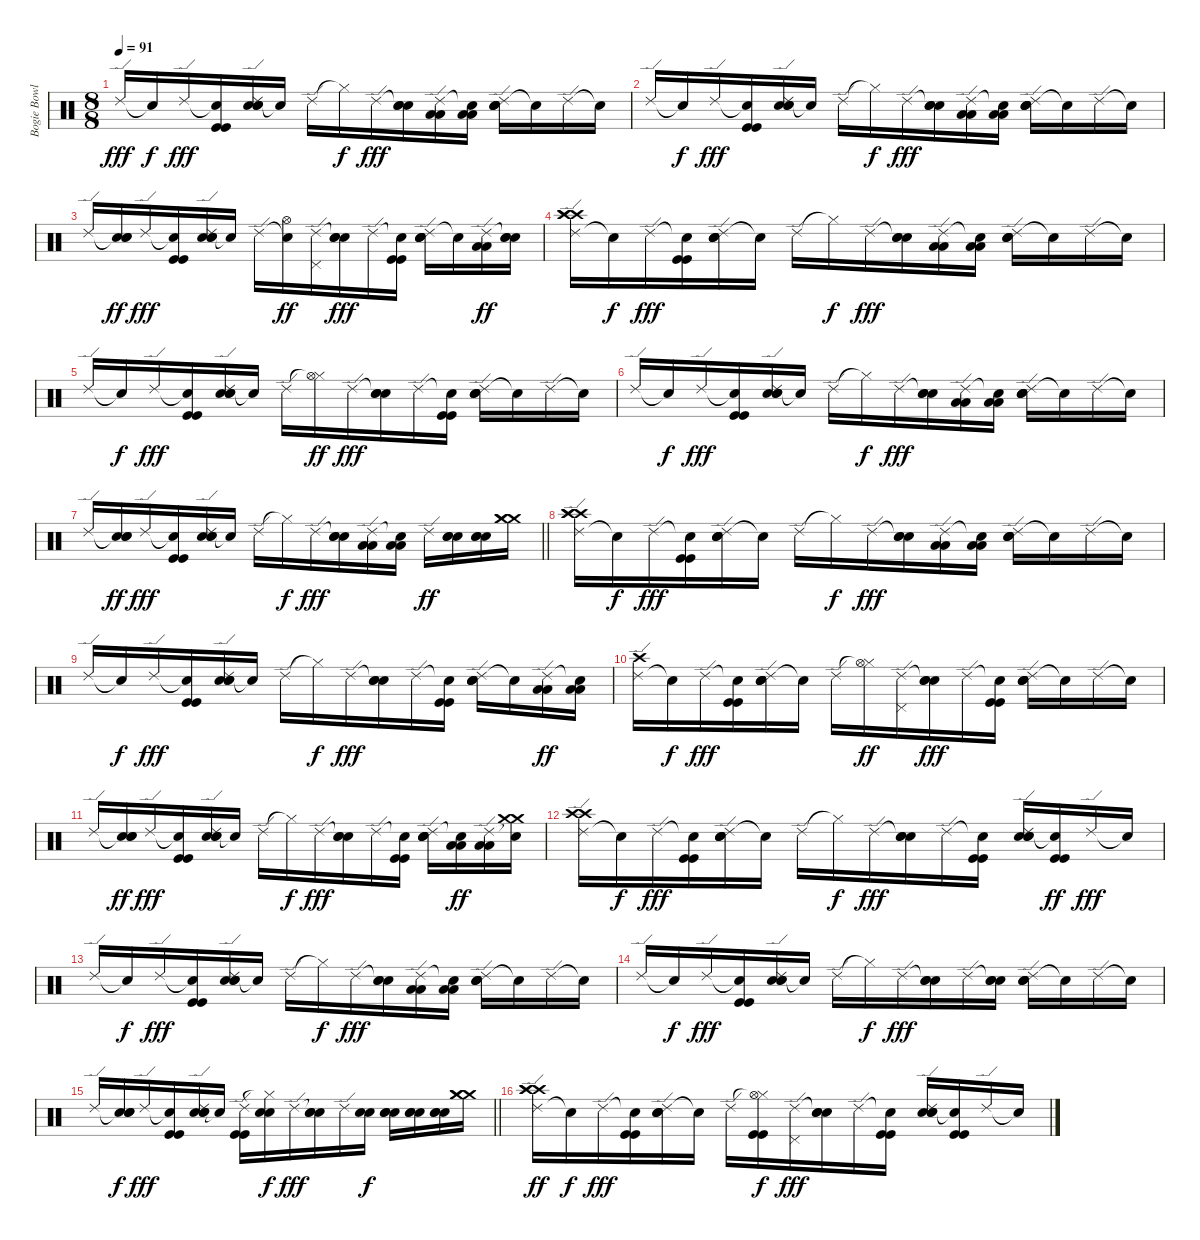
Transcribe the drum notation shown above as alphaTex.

\track ("Bogie Bowles Drums" "Bogie Bowl") {instrument percussion}
\staff {score}
\articulation defaults
\ts (8 8)
\tempo 91
\clef neutral
\ks c "Ride (edge) 2".16{dy fff} "Snare (hit)"{t}.16{dy f} "Ride (edge) 2".16{dy fff}
("Snare (hit)"{t} "Kick (hit)" "Kick (hit)").16 ("Ride (edge) 2" "Snare (hit) 2" "Snare (hit) 2" "Snare (hit) 2").16 "Snare (hit)"{t}.16 "Ride (edge) 2".16 "Hi-Hat (closed)"{t}.16{dy f} "Ride (edge) 2".16{dy fff} ("Snare (hit)"{t} "Snare (hit) 2" "Snare (hit) 2").16 ("Ride (edge) 2" "Low Tom (hit)" "Low Tom (hit)").16 ("Snare (hit)"{t} "Low Tom (hit)" "Low Tom (hit)").16 ("Ride (edge) 2" "Snare (hit) 2" "Snare (hit) 2" "Snare (hit) 2").16 "Snare (hit)"{t}.16 "Ride (edge) 2".16 "Snare (hit)"{t}.16 |
"Ride (edge) 2".16 "Snare (hit)"{t}.16{dy f} "Ride (edge) 2".16{dy fff} ("Snare (hit)"{t} "Kick (hit)" "Kick (hit)").16 ("Ride (edge) 2" "Snare (hit) 2" "Snare (hit) 2" "Snare (hit) 2").16 "Snare (hit)"{t}.16 "Ride (edge) 2".16 "Hi-Hat (closed)"{t}.16{dy f} "Ride (edge) 2".16{dy fff} ("Snare (hit)"{t} "Snare (hit) 2" "Snare (hit) 2").16 ("Ride (edge) 2" "Low Tom (hit)" "Low Tom (hit)").16 ("Snare (hit)"{t} "Low Tom (hit)" "Low Tom (hit)").16 ("Ride (edge) 2" "Snare (hit) 2" "Snare (hit) 2" "Snare (hit) 2").16 "Snare (hit)"{t}.16 "Ride (edge) 2".16 "Snare (hit)"{t}.16 |
"Ride (edge) 2".16 ("Snare (hit)"{t} "Snare (hit) 2" "Snare (hit) 2").16{dy ff} "Ride (edge) 2".16{dy fff} ("Snare (hit)"{t} "Kick (hit)" "Kick (hit)").16 ("Ride (edge) 2" "Snare (hit) 2" "Snare (hit) 2" "Snare (hit) 2").16 "Snare (hit)"{t}.16 "Ride (edge) 2".16 ("Snare (hit)"{t} "Hi-Hat (open)").16{dy ff} ("Ride (edge) 2" "Pedal Hi-Hat (hit)").16 ("Snare (hit)"{t} "Snare (hit) 2" "Snare (hit) 2").16{dy fff} "Ride (edge) 2".16 ("Snare (hit)"{t} "Kick (hit)" "Kick (hit)").16 ("Ride (edge) 2" "Snare (hit) 2" "Snare (hit) 2" "Snare (hit) 2").16 "Snare (hit)"{t}.16 ("Ride (edge) 2" "Low Tom (hit)" "Low Tom (hit)").16{dy ff} ("Snare (hit)"{t} "Snare (hit) 2" "Snare (hit) 2").16 |
("Ride (edge) 2" "Crash high (hit)" "Crash high (hit)" "Crash high (hit)").16 "Snare (hit)"{t}.16{dy f} "Ride (edge) 2".16{dy fff} ("Snare (hit)"{t} "Kick (hit)" "Kick (hit)").16 ("Ride (edge) 2" "Snare (hit) 2" "Snare (hit) 2" "Snare (hit) 2").16 "Snare (hit)"{t}.16 "Ride (edge) 2".16 "Hi-Hat (closed)"{t}.16{dy f} "Ride (edge) 2".16{dy fff} ("Snare (hit)"{t} "Snare (hit) 2" "Snare (hit) 2").16 ("Ride (edge) 2" "Low Tom (hit)" "Low Tom (hit)").16 ("Snare (hit)"{t} "Low Tom (hit)" "Low Tom (hit)").16 ("Ride (edge) 2" "Snare (hit) 2" "Snare (hit) 2" "Snare (hit) 2").16 "Snare (hit)"{t}.16 "Ride (edge) 2".16 "Snare (hit)"{t}.16 |
"Ride (edge) 2".16 "Snare (hit)"{t}.16{dy f} "Ride (edge) 2".16{dy fff} ("Snare (hit)"{t} "Kick (hit)" "Kick (hit)").16 ("Ride (edge) 2" "Snare (hit) 2" "Snare (hit) 2" "Snare (hit) 2").16 "Snare (hit)"{t}.16 "Ride (edge) 2".16 ("Hi-Hat (closed)"{t} "Hi-Hat (open)").16{dy ff} "Ride (edge) 2".16{dy fff} ("Snare (hit)"{t} "Snare (hit) 2" "Snare (hit) 2").16 "Ride (edge) 2".16 ("Snare (hit)"{t} "Kick (hit)" "Kick (hit)").16 ("Ride (edge) 2" "Snare (hit) 2" "Snare (hit) 2" "Snare (hit) 2").16 "Snare (hit)"{t}.16 "Ride (edge) 2".16 "Snare (hit)"{t}.16 |
"Ride (edge) 2".16 "Snare (hit)"{t}.16{dy f} "Ride (edge) 2".16{dy fff} ("Snare (hit)"{t} "Kick (hit)" "Kick (hit)").16 ("Ride (edge) 2" "Snare (hit) 2" "Snare (hit) 2" "Snare (hit) 2").16 "Snare (hit)"{t}.16 "Ride (edge) 2".16 "Hi-Hat (closed)"{t}.16{dy f} "Ride (edge) 2".16{dy fff} ("Snare (hit)"{t} "Snare (hit) 2" "Snare (hit) 2").16 ("Ride (edge) 2" "Low Tom (hit)" "Low Tom (hit)").16 ("Snare (hit)"{t} "Low Tom (hit)" "Low Tom (hit)").16 ("Ride (edge) 2" "Snare (hit) 2" "Snare (hit) 2" "Snare (hit) 2").16 "Snare (hit)"{t}.16 "Ride (edge) 2".16 "Snare (hit)"{t}.16 |
\barLineRight lightlight "Ride (edge) 2".16
("Snare (hit)"{t} "Snare (hit) 2" "Snare (hit) 2").16{dy ff} "Ride (edge) 2".16{dy fff} ("Snare (hit)"{t} "Kick (hit)" "Kick (hit)").16 ("Ride (edge) 2" "Snare (hit) 2" "Snare (hit) 2" "Snare (hit) 2").16 "Snare (hit)"{t}.16 "Ride (edge) 2".16 "Hi-Hat (closed)"{t}.16{dy f} "Ride (edge) 2".16{dy fff} ("Snare (hit)"{t} "Snare (hit) 2" "Snare (hit) 2").16 ("Ride (edge) 2" "Low Tom (hit)" "Low Tom (hit)").16 ("Snare (hit)"{t} "Low Tom (hit)" "Low Tom (hit)").16 "Ride (edge) 2".16{dy ff} ("Snare (hit) 2" "Snare (hit) 2" "Snare (hit) 2").16 ("Snare (hit) 2" "Snare (hit) 2" "Snare (hit) 2").16 ("Crash medium (hit)" "Crash medium (hit)" "Crash medium (hit)").16 |
("Ride (edge) 2" "Crash high (hit)" "Crash high (hit)" "Crash high (hit)").16 "Snare (hit)"{t}.16{dy f} "Ride (edge) 2".16{dy fff} ("Snare (hit)"{t} "Kick (hit)" "Kick (hit)").16 ("Ride (edge) 2" "Snare (hit) 2" "Snare (hit) 2" "Snare (hit) 2").16 "Snare (hit)"{t}.16 "Ride (edge) 2".16 "Hi-Hat (closed)"{t}.16{dy f} "Ride (edge) 2".16{dy fff} ("Snare (hit)"{t} "Snare (hit) 2" "Snare (hit) 2").16 ("Ride (edge) 2" "Low Tom (hit)" "Low Tom (hit)").16 ("Snare (hit)"{t} "Low Tom (hit)" "Low Tom (hit)").16 ("Ride (edge) 2" "Snare (hit) 2" "Snare (hit) 2" "Snare (hit) 2").16 "Snare (hit)"{t}.16 "Ride (edge) 2".16 "Snare (hit)"{t}.16 |
"Ride (edge) 2".16 "Snare (hit)"{t}.16{dy f} "Ride (edge) 2".16{dy fff} ("Snare (hit)"{t} "Kick (hit)" "Kick (hit)").16 ("Ride (edge) 2" "Snare (hit) 2" "Snare (hit) 2" "Snare (hit) 2").16 "Snare (hit)"{t}.16 "Ride (edge) 2".16 "Hi-Hat (closed)"{t}.16{dy f} "Ride (edge) 2".16{dy fff} ("Snare (hit)"{t} "Snare (hit) 2" "Snare (hit) 2").16 "Ride (edge) 2".16 ("Snare (hit)"{t} "Kick (hit)" "Kick (hit)").16 ("Ride (edge) 2" "Snare (hit) 2" "Snare (hit) 2" "Snare (hit) 2").16 "Snare (hit)"{t}.16 ("Ride (edge) 2" "Low Floor Tom (hit)" "Low Floor Tom (hit)").16{dy ff} ("Snare (hit)"{t} "Low Floor Tom (hit)" "Low Floor Tom (hit)").16 |
("Ride (edge) 2" "Crash high (hit)").16 "Snare (hit)"{t}.16{dy f} "Ride (edge) 2".16{dy fff} ("Snare (hit)"{t} "Kick (hit)" "Kick (hit)").16 ("Ride (edge) 2" "Snare (hit) 2" "Snare (hit) 2" "Snare (hit) 2").16 "Snare (hit)"{t}.16 "Ride (edge) 2".16 ("Hi-Hat (closed)"{t} "Hi-Hat (open)").16{dy ff} ("Ride (edge) 2" "Pedal Hi-Hat (hit)").16 ("Snare (hit)"{t} "Snare (hit) 2" "Snare (hit) 2").16{dy fff} "Ride (edge) 2".16 ("Snare (hit)"{t} "Kick (hit)" "Kick (hit)").16 ("Ride (edge) 2" "Snare (hit) 2" "Snare (hit) 2" "Snare (hit) 2").16 "Snare (hit)"{t}.16 "Ride (edge) 2".16 "Snare (hit)"{t}.16 |
"Ride (edge) 2".16 ("Snare (hit)"{t} "Snare (hit) 2" "Snare (hit) 2").16{dy ff} "Ride (edge) 2".16{dy fff} ("Snare (hit)"{t} "Kick (hit)" "Kick (hit)").16 ("Ride (edge) 2" "Snare (hit) 2" "Snare (hit) 2" "Snare (hit) 2").16 "Snare (hit)"{t}.16 "Ride (edge) 2".16 "Hi-Hat (closed)"{t}.16{dy f} "Ride (edge) 2".16{dy fff} ("Snare (hit)"{t} "Snare (hit) 2" "Snare (hit) 2").16 "Ride (edge) 2".16 ("Snare (hit)"{t} "Kick (hit)" "Kick (hit)").16 ("Ride (edge) 2" "Snare (hit) 2" "Snare (hit) 2" "Snare (hit) 2").16 ("Snare (hit)"{t} "Low Floor Tom (hit)" "Low Floor Tom (hit)").16{dy ff} ("Ride (edge) 2" "Low Floor Tom (hit)" "Low Floor Tom (hit)").16 ("Snare (hit)"{t} "Crash medium (hit)" "Crash medium (hit)").16 |
("Ride (edge) 2" "Crash high (hit)" "Crash high (hit)").16 "Snare (hit)"{t}.16{dy f} "Ride (edge) 2".16{dy fff} ("Snare (hit)"{t} "Kick (hit)" "Kick (hit)").16 ("Ride (edge) 2" "Snare (hit) 2" "Snare (hit) 2" "Snare (hit) 2").16 "Snare (hit)"{t}.16 "Ride (edge) 2".16 "Hi-Hat (closed)"{t}.16{dy f} "Ride (edge) 2".16{dy fff} ("Snare (hit)"{t} "Snare (hit) 2" "Snare (hit) 2").16 "Ride (edge) 2".16 ("Snare (hit)"{t} "Kick (hit)" "Kick (hit)").16 ("Ride (edge) 2" "Snare (hit) 2" "Snare (hit) 2" "Snare (hit) 2").16 ("Snare (hit)"{t} "Kick (hit)" "Kick (hit)").16{dy ff} "Ride (edge) 2".16{dy fff} "Snare (hit)"{t}.16 |
"Ride (edge) 2".16 "Snare (hit)"{t}.16{dy f} "Ride (edge) 2".16{dy fff} ("Snare (hit)"{t} "Kick (hit)" "Kick (hit)").16 ("Ride (edge) 2" "Snare (hit) 2" "Snare (hit) 2" "Snare (hit) 2").16 "Snare (hit)"{t}.16 "Ride (edge) 2".16 "Hi-Hat (closed)"{t}.16{dy f} "Ride (edge) 2".16{dy fff} ("Snare (hit)"{t} "Snare (hit) 2" "Snare (hit) 2").16 ("Ride (edge) 2" "Low Tom (hit)" "Low Tom (hit)").16 ("Snare (hit)"{t} "Low Tom (hit)" "Low Tom (hit)").16 ("Ride (edge) 2" "Snare (hit) 2" "Snare (hit) 2" "Snare (hit) 2").16 "Snare (hit)"{t}.16 "Ride (edge) 2".16 "Snare (hit)"{t}.16 |
"Ride (edge) 2".16 "Snare (hit)"{t}.16{dy f} "Ride (edge) 2".16{dy fff} ("Snare (hit)"{t} "Kick (hit)" "Kick (hit)").16 ("Ride (edge) 2" "Snare (hit) 2" "Snare (hit) 2" "Snare (hit) 2").16 "Snare (hit)"{t}.16 "Ride (edge) 2".16 "Hi-Hat (closed)"{t}.16{dy f} "Ride (edge) 2".16{dy fff} ("Snare (hit)"{t} "Snare (hit) 2" "Snare (hit) 2").16 "Ride (edge) 2".16 ("Snare (hit)"{t} "Snare (hit) 2" "Snare (hit) 2").16 ("Ride (edge) 2" "Snare (hit) 2" "Snare (hit) 2" "Snare (hit) 2").16 "Snare (hit)"{t}.16 "Ride (edge) 2".16 "Snare (hit)"{t}.16 |
\barLineRight lightlight "Ride (edge) 2".16
("Snare (hit)"{t} "Snare (hit) 2" "Snare (hit) 2").16{dy f} "Ride (edge) 2".16{dy fff} ("Snare (hit)"{t} "Kick (hit)" "Kick (hit)").16 ("Ride (edge) 2" "Snare (hit) 2" "Snare (hit) 2" "Snare (hit) 2").16 "Snare (hit)"{t}.16 ("Ride (edge) 2" "Kick (hit)" "Kick (hit)").16 ("Hi-Hat (closed)"{t} "Snare (hit) 2" "Snare (hit) 2").16{dy f} "Ride (edge) 2".16{dy fff} ("Snare (hit)"{t} "Snare (hit) 2" "Snare (hit) 2").16 "Ride (edge) 2".16 ("Snare (hit) 2" "Snare (hit) 2").16{dy f} ("Snare (hit) 2" "Snare (hit) 2" "Snare (hit) 2").16 ("Snare (hit) 2" "Snare (hit) 2" "Snare (hit) 2").16 ("Snare (hit) 2" "Snare (hit) 2" "Snare (hit) 2").16 ("Crash medium (hit)" "Crash medium (hit)" "Crash medium (hit)").16 |
("Ride (edge) 2" "Crash high (hit)" "Crash high (hit)" "Crash high (hit)").16{dy ff volume 16} "Snare (hit)"{t}.16{dy f} "Ride (edge) 2".16{dy fff} ("Snare (hit)"{t} "Kick (hit)" "Kick (hit)").16 ("Ride (edge) 2" "Snare (hit) 2" "Snare (hit) 2" "Snare (hit) 2").16 "Snare (hit)"{t}.16 "Ride (edge) 2".16 ("Hi-Hat (closed)"{t} "Hi-Hat (open)" "Kick (hit)" "Kick (hit)").16{dy f} ("Ride (edge) 2" "Pedal Hi-Hat (hit)").16{dy fff} ("Snare (hit)"{t} "Snare (hit) 2" "Snare (hit) 2").16 "Ride (edge) 2".16 ("Snare (hit)"{t} "Kick (hit)" "Kick (hit)").16 ("Ride (edge) 2" "Snare (hit) 2" "Snare (hit) 2" "Snare (hit) 2").16 ("Snare (hit)"{t} "Kick (hit)" "Kick (hit)").16 "Ride (edge) 2".16 "Snare (hit)"{t}.16
